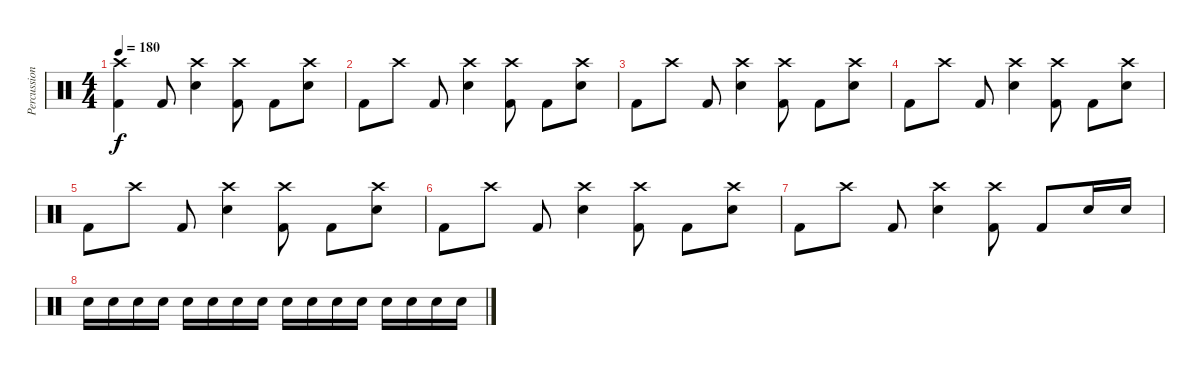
\track ("Percussion" "Percussion") {instrument percussion}
\staff {score}
\articulation defaults
\ts (4 4)
\tempo 180
\clef neutral
\ks c
("Kick (hit) 2" "Crash high (hit)").4{dy f} "Kick (hit) 2".8 ("Crash high (hit)" "Electric Snare (hit)").4 ("Crash high (hit)" "Kick (hit) 2").8 "Kick (hit) 2".8 ("Crash high (hit)" "Electric Snare (hit)").8 |
"Kick (hit) 2".8 "Crash high (hit)".8 "Kick (hit) 2".8 ("Crash high (hit)" "Electric Snare (hit)").4 ("Kick (hit) 2" "Crash high (hit)").8 "Kick (hit) 2".8 ("Crash high (hit)" "Electric Snare (hit)").8 |
"Kick (hit) 2".8 "Crash high (hit)".8 "Kick (hit) 2".8 ("Crash high (hit)" "Electric Snare (hit)").4 ("Kick (hit) 2" "Crash high (hit)").8 "Kick (hit) 2".8 ("Crash high (hit)" "Electric Snare (hit)").8 |
"Kick (hit) 2".8 "Crash high (hit)".8 "Kick (hit) 2".8 ("Crash high (hit)" "Electric Snare (hit)").4 ("Kick (hit) 2" "Crash high (hit)").8 "Kick (hit) 2".8 ("Crash high (hit)" "Electric Snare (hit)").8 |
"Kick (hit) 2".8 "Crash high (hit)".8 "Kick (hit) 2".8 ("Crash high (hit)" "Electric Snare (hit)").4 ("Kick (hit) 2" "Crash high (hit)").8 "Kick (hit) 2".8 ("Crash high (hit)" "Electric Snare (hit)").8 |
"Kick (hit) 2".8 "Crash high (hit)".8 "Kick (hit) 2".8 ("Crash high (hit)" "Electric Snare (hit)").4 ("Kick (hit) 2" "Crash high (hit)").8 "Kick (hit) 2".8 ("Crash high (hit)" "Electric Snare (hit)").8 |
"Kick (hit) 2".8 "Crash high (hit)".8 "Kick (hit) 2".8 ("Crash high (hit)" "Electric Snare (hit)").4 ("Kick (hit) 2" "Crash high (hit)").8 "Kick (hit) 2".8 "Electric Snare (hit)".16 "Electric Snare (hit)".16 |
"Electric Snare (hit)".16 "Electric Snare (hit)".16 "Electric Snare (hit)".16 "Electric Snare (hit)".16 "Electric Snare (hit)".16 "Electric Snare (hit)".16 "Electric Snare (hit)".16 "Electric Snare (hit)".16 "Electric Snare (hit)".16 "Electric Snare (hit)".16 "Electric Snare (hit)".16 "Electric Snare (hit)".16 "Electric Snare (hit)".16 "Electric Snare (hit)".16 "Electric Snare (hit)".16 "Electric Snare (hit)".16
